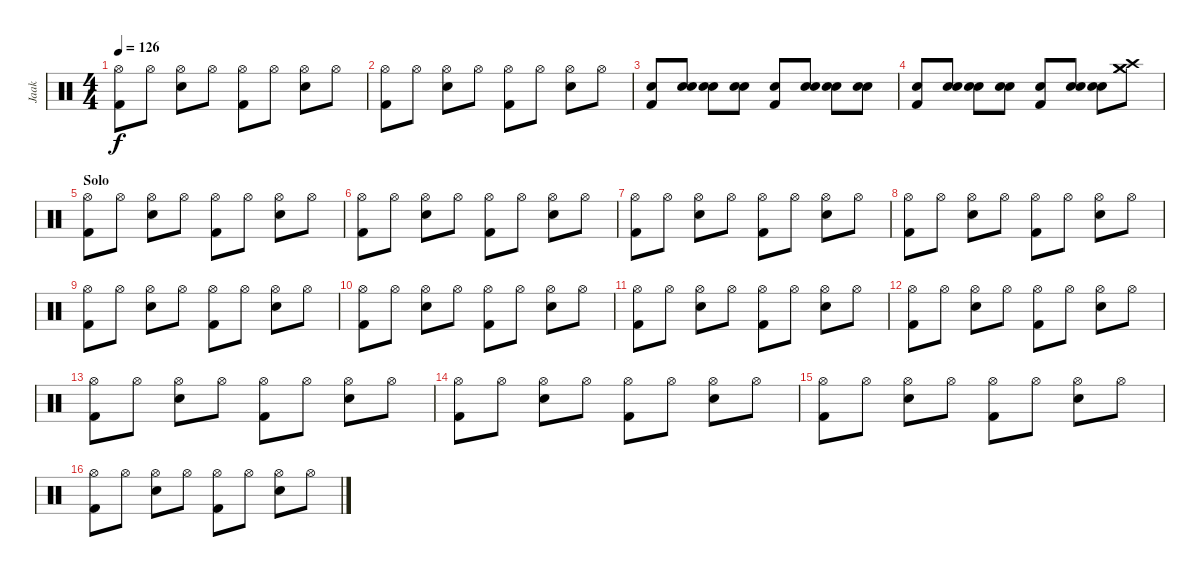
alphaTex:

\track ("Jaak" "Jaak") {instrument percussion}
\staff {score}
\articulation defaults
\ts (4 4)
\tempo 126
\clef neutral
\ks c
("Hi-Hat (open)" "Kick (hit) 2").8{dy f} "Hi-Hat (open)".8 ("Hi-Hat (open)" "Snare (hit) 2").8 "Hi-Hat (open)".8 ("Hi-Hat (open)" "Kick (hit) 2").8 "Hi-Hat (open)".8 ("Hi-Hat (open)" "Snare (hit) 2").8 "Hi-Hat (open)".8 |
("Hi-Hat (open)" "Kick (hit) 2").8 "Hi-Hat (open)".8 ("Hi-Hat (open)" "Snare (hit) 2").8 "Hi-Hat (open)".8 ("Hi-Hat (open)" "Kick (hit) 2").8 "Hi-Hat (open)".8 ("Hi-Hat (open)" "Snare (hit) 2").8 "Hi-Hat (open)".8 |
("Snare (hit) 2" "Kick (hit) 2").8 ("Snare (hit) 2" "Snare (hit) 2").8 ("Snare (hit) 2" "Snare (hit) 2").8 ("Snare (hit) 2" "Snare (hit) 2").8 ("Snare (hit) 2" "Kick (hit) 2").8 ("Snare (hit) 2" "Snare (hit) 2").8 ("Snare (hit) 2" "Snare (hit) 2").8 ("Snare (hit) 2" "Snare (hit) 2").8 |
("Snare (hit) 2" "Kick (hit) 2").8 ("Snare (hit) 2" "Snare (hit) 2").8 ("Snare (hit) 2" "Snare (hit) 2").8 ("Snare (hit) 2" "Snare (hit) 2").8 ("Snare (hit) 2" "Kick (hit) 2").8 ("Snare (hit) 2" "Snare (hit) 2").8 ("Snare (hit) 2" "Snare (hit) 2").8 ("Crash high (hit)" "Crash medium (hit)" "Crash medium (hit)").8 |
\section ("" "Solo")
("Hi-Hat (open)" "Kick (hit) 2").8 "Hi-Hat (open)".8 ("Hi-Hat (open)" "Snare (hit) 2").8 "Hi-Hat (open)".8 ("Hi-Hat (open)" "Kick (hit) 2").8 "Hi-Hat (open)".8 ("Hi-Hat (open)" "Snare (hit) 2").8 "Hi-Hat (open)".8 |
("Hi-Hat (open)" "Kick (hit) 2").8 "Hi-Hat (open)".8 ("Hi-Hat (open)" "Snare (hit) 2").8 "Hi-Hat (open)".8 ("Hi-Hat (open)" "Kick (hit) 2").8 "Hi-Hat (open)".8 ("Hi-Hat (open)" "Snare (hit) 2").8 "Hi-Hat (open)".8 |
("Hi-Hat (open)" "Kick (hit) 2").8 "Hi-Hat (open)".8 ("Hi-Hat (open)" "Snare (hit) 2").8 "Hi-Hat (open)".8 ("Hi-Hat (open)" "Kick (hit) 2").8 "Hi-Hat (open)".8 ("Hi-Hat (open)" "Snare (hit) 2").8 "Hi-Hat (open)".8 |
("Hi-Hat (open)" "Kick (hit) 2").8 "Hi-Hat (open)".8 ("Hi-Hat (open)" "Snare (hit) 2").8 "Hi-Hat (open)".8 ("Hi-Hat (open)" "Kick (hit) 2").8 "Hi-Hat (open)".8 ("Hi-Hat (open)" "Snare (hit) 2").8 "Hi-Hat (open)".8 |
("Hi-Hat (open)" "Kick (hit) 2").8 "Hi-Hat (open)".8 ("Hi-Hat (open)" "Snare (hit) 2").8 "Hi-Hat (open)".8 ("Hi-Hat (open)" "Kick (hit) 2").8 "Hi-Hat (open)".8 ("Hi-Hat (open)" "Snare (hit) 2").8 "Hi-Hat (open)".8 |
("Hi-Hat (open)" "Kick (hit) 2").8 "Hi-Hat (open)".8 ("Hi-Hat (open)" "Snare (hit) 2").8 "Hi-Hat (open)".8 ("Hi-Hat (open)" "Kick (hit) 2").8 "Hi-Hat (open)".8 ("Hi-Hat (open)" "Snare (hit) 2").8 "Hi-Hat (open)".8 |
("Hi-Hat (open)" "Kick (hit) 2").8 "Hi-Hat (open)".8 ("Hi-Hat (open)" "Snare (hit) 2").8 "Hi-Hat (open)".8 ("Hi-Hat (open)" "Kick (hit) 2").8 "Hi-Hat (open)".8 ("Hi-Hat (open)" "Snare (hit) 2").8 "Hi-Hat (open)".8 |
("Hi-Hat (open)" "Kick (hit) 2").8 "Hi-Hat (open)".8 ("Hi-Hat (open)" "Snare (hit) 2").8 "Hi-Hat (open)".8 ("Hi-Hat (open)" "Kick (hit) 2").8 "Hi-Hat (open)".8 ("Hi-Hat (open)" "Snare (hit) 2").8 "Hi-Hat (open)".8 |
("Hi-Hat (open)" "Kick (hit) 2").8 "Hi-Hat (open)".8 ("Hi-Hat (open)" "Snare (hit) 2").8 "Hi-Hat (open)".8 ("Hi-Hat (open)" "Kick (hit) 2").8 "Hi-Hat (open)".8 ("Hi-Hat (open)" "Snare (hit) 2").8 "Hi-Hat (open)".8 |
("Hi-Hat (open)" "Kick (hit) 2").8 "Hi-Hat (open)".8 ("Hi-Hat (open)" "Snare (hit) 2").8 "Hi-Hat (open)".8 ("Hi-Hat (open)" "Kick (hit) 2").8 "Hi-Hat (open)".8 ("Hi-Hat (open)" "Snare (hit) 2").8 "Hi-Hat (open)".8 |
("Hi-Hat (open)" "Kick (hit) 2").8 "Hi-Hat (open)".8 ("Hi-Hat (open)" "Snare (hit) 2").8 "Hi-Hat (open)".8 ("Hi-Hat (open)" "Kick (hit) 2").8 "Hi-Hat (open)".8 ("Hi-Hat (open)" "Snare (hit) 2").8 "Hi-Hat (open)".8 |
("Hi-Hat (open)" "Kick (hit) 2").8 "Hi-Hat (open)".8 ("Hi-Hat (open)" "Snare (hit) 2").8 "Hi-Hat (open)".8 ("Hi-Hat (open)" "Kick (hit) 2").8 "Hi-Hat (open)".8 ("Hi-Hat (open)" "Snare (hit) 2").8 "Hi-Hat (open)".8
